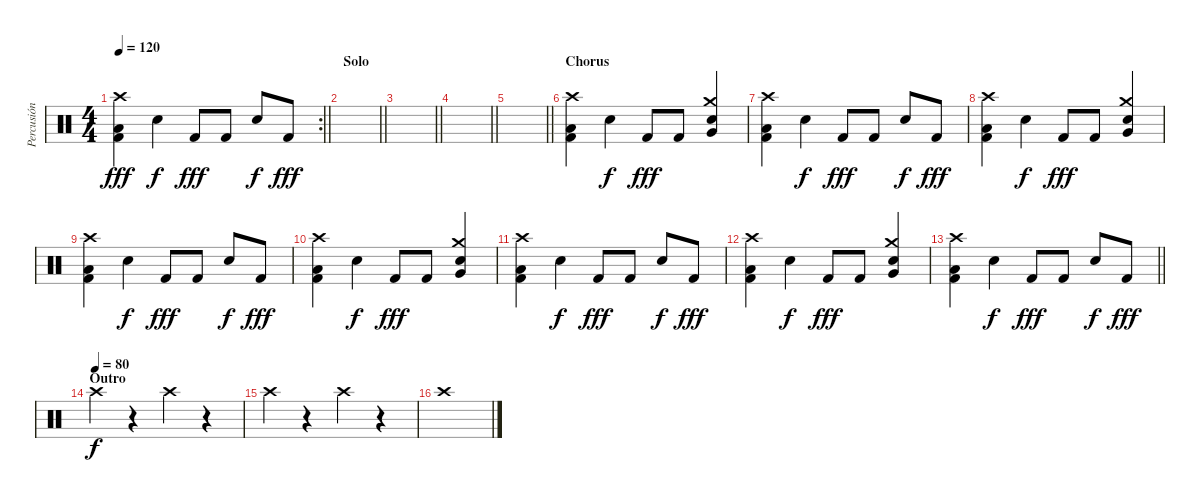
\track ("Percusión" "Percusión") {instrument percussion}
\staff {score}
\articulation defaults
\rc 2
\ts (4 4)
\tempo 120
\clef neutral
\barLineRight lightlight
\ks c
("Crash high (hit)" "Low Floor Tom (hit)" "Kick (hit) 2").4{dy fff} "Electric Snare (hit)".4{dy f} "Kick (hit) 2".8{dy fff} "Kick (hit) 2".8 "Electric Snare (hit)".8{dy f} "Kick (hit) 2".8{dy fff} |
\section ("" "Solo")
\barLineRight lightlight
|
\barLineRight lightlight
|
\barLineRight lightlight
|
\barLineRight lightlight
|
\section ("" "Chorus")
("Crash high (hit)" "Low Floor Tom (hit)" "Kick (hit) 2").4 "Electric Snare (hit)".4{dy f} "Kick (hit) 2".8{dy fff} "Kick (hit) 2".8 ("Crash medium (hit)" "Electric Snare (hit)" "Very Low Tom (hit)").4 |
("Crash high (hit)" "Low Floor Tom (hit)" "Kick (hit) 2").4 "Electric Snare (hit)".4{dy f} "Kick (hit) 2".8{dy fff} "Kick (hit) 2".8 "Electric Snare (hit)".8{dy f} "Kick (hit) 2".8{dy fff} |
("Crash high (hit)" "Low Floor Tom (hit)" "Kick (hit) 2").4 "Electric Snare (hit)".4{dy f} "Kick (hit) 2".8{dy fff} "Kick (hit) 2".8 ("Crash medium (hit)" "Electric Snare (hit)" "Very Low Tom (hit)").4 |
("Crash high (hit)" "Low Floor Tom (hit)" "Kick (hit) 2").4 "Electric Snare (hit)".4{dy f} "Kick (hit) 2".8{dy fff} "Kick (hit) 2".8 "Electric Snare (hit)".8{dy f} "Kick (hit) 2".8{dy fff} |
("Crash high (hit)" "Low Floor Tom (hit)" "Kick (hit) 2").4 "Electric Snare (hit)".4{dy f} "Kick (hit) 2".8{dy fff} "Kick (hit) 2".8 ("Crash medium (hit)" "Electric Snare (hit)" "Very Low Tom (hit)").4 |
("Crash high (hit)" "Low Floor Tom (hit)" "Kick (hit) 2").4 "Electric Snare (hit)".4{dy f} "Kick (hit) 2".8{dy fff} "Kick (hit) 2".8 "Electric Snare (hit)".8{dy f} "Kick (hit) 2".8{dy fff} |
("Crash high (hit)" "Low Floor Tom (hit)" "Kick (hit) 2").4 "Electric Snare (hit)".4{dy f} "Kick (hit) 2".8{dy fff} "Kick (hit) 2".8 ("Crash medium (hit)" "Electric Snare (hit)" "Very Low Tom (hit)").4 |
\barLineRight lightlight
("Crash high (hit)" "Low Floor Tom (hit)" "Kick (hit) 2").4 "Electric Snare (hit)".4{dy f} "Kick (hit) 2".8{dy fff} "Kick (hit) 2".8 "Electric Snare (hit)".8{dy f} "Kick (hit) 2".8{dy fff} |
\section ("" "Outro")
\tempo (80)
"Crash high (hit)".4{dy f} r.4 "Crash high (hit)".4 r.4 |
"Crash high (hit)".4 r.4 "Crash high (hit)".4 r.4 |
"Crash high (hit)".1
